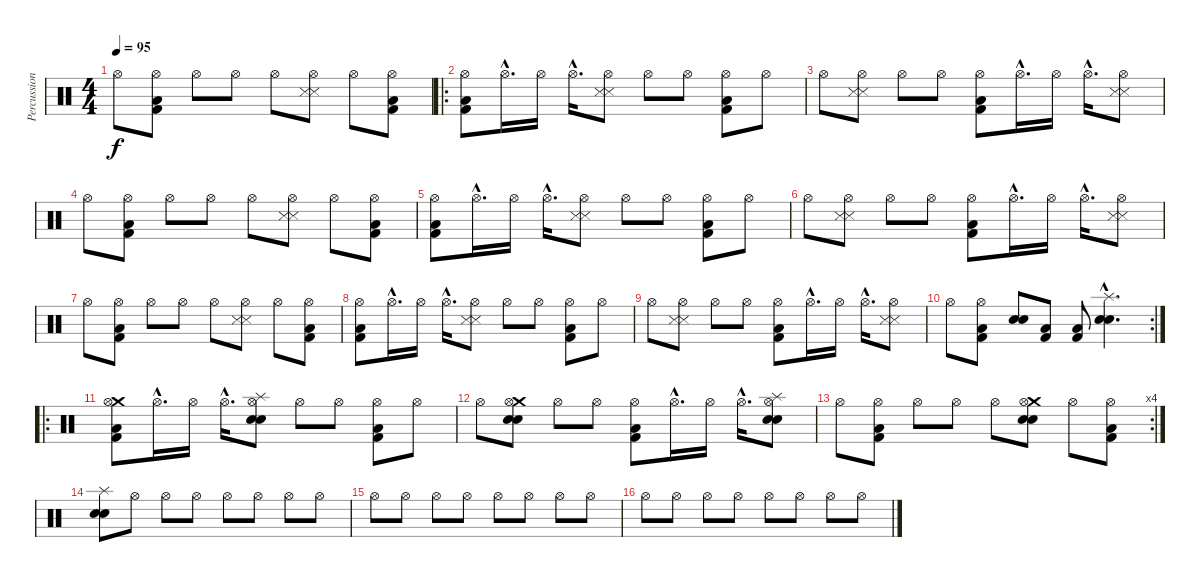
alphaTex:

\track ("Percussions" "Percussion") {instrument percussion}
\staff {score}
\articulation defaults
\ts (4 4)
\tempo 95
\clef neutral
\ks c "Hi-Hat (open)".8{dy f}
("Hi-Hat (open)" "Kick (hit) 2" "Low Floor Tom (hit)").8 "Hi-Hat (open)".8 "Hi-Hat (open)".8 "Hi-Hat (open)".8 ("Hi-Hat (open)" "Snare (side stick) 3" "Snare (side stick) 3").8 "Hi-Hat (open)".8 ("Hi-Hat (open)" "Kick (hit) 2" "Low Floor Tom (hit)").8 |
\ro
("Hi-Hat (open)" "Kick (hit) 2" "Low Floor Tom (hit)").8 "Hi-Hat (open)"{hac}.16{d} "Hi-Hat (open)".16 "Hi-Hat (open)"{hac}.16{d} ("Hi-Hat (open)" "Snare (side stick) 3" "Snare (side stick) 3").8 "Hi-Hat (open)".8 "Hi-Hat (open)".8 ("Hi-Hat (open)" "Kick (hit) 2" "Low Floor Tom (hit)").8 "Hi-Hat (open)".8 |
"Hi-Hat (open)".8 ("Hi-Hat (open)" "Snare (side stick) 3" "Snare (side stick) 3").8 "Hi-Hat (open)".8 "Hi-Hat (open)".8 ("Hi-Hat (open)" "Kick (hit) 2" "Low Floor Tom (hit)").8 "Hi-Hat (open)"{hac}.16{d} "Hi-Hat (open)".16 "Hi-Hat (open)"{hac}.16{d} ("Hi-Hat (open)" "Snare (side stick) 3" "Snare (side stick) 3").8 |
"Hi-Hat (open)".8 ("Hi-Hat (open)" "Kick (hit) 2" "Low Floor Tom (hit)").8 "Hi-Hat (open)".8 "Hi-Hat (open)".8 "Hi-Hat (open)".8 ("Hi-Hat (open)" "Snare (side stick) 3" "Snare (side stick) 3").8 "Hi-Hat (open)".8 ("Hi-Hat (open)" "Kick (hit) 2" "Low Floor Tom (hit)").8 |
("Hi-Hat (open)" "Kick (hit) 2" "Low Floor Tom (hit)").8 "Hi-Hat (open)"{hac}.16{d} "Hi-Hat (open)".16 "Hi-Hat (open)"{hac}.16{d} ("Hi-Hat (open)" "Snare (side stick) 3" "Snare (side stick) 3").8 "Hi-Hat (open)".8 "Hi-Hat (open)".8 ("Hi-Hat (open)" "Kick (hit) 2" "Low Floor Tom (hit)").8 "Hi-Hat (open)".8 |
"Hi-Hat (open)".8 ("Hi-Hat (open)" "Snare (side stick) 3" "Snare (side stick) 3").8 "Hi-Hat (open)".8 "Hi-Hat (open)".8 ("Hi-Hat (open)" "Kick (hit) 2" "Low Floor Tom (hit)").8 "Hi-Hat (open)"{hac}.16{d} "Hi-Hat (open)".16 "Hi-Hat (open)"{hac}.16{d} ("Hi-Hat (open)" "Snare (side stick) 3" "Snare (side stick) 3").8 |
"Hi-Hat (open)".8 ("Hi-Hat (open)" "Kick (hit) 2" "Low Floor Tom (hit)").8 "Hi-Hat (open)".8 "Hi-Hat (open)".8 "Hi-Hat (open)".8 ("Hi-Hat (open)" "Snare (side stick) 3" "Snare (side stick) 3").8 "Hi-Hat (open)".8 ("Hi-Hat (open)" "Kick (hit) 2" "Low Floor Tom (hit)").8 |
("Hi-Hat (open)" "Kick (hit) 2" "Low Floor Tom (hit)").8 "Hi-Hat (open)"{hac}.16{d} "Hi-Hat (open)".16 "Hi-Hat (open)"{hac}.16{d} ("Hi-Hat (open)" "Snare (side stick) 3" "Snare (side stick) 3").8 "Hi-Hat (open)".8 "Hi-Hat (open)".8 ("Hi-Hat (open)" "Kick (hit) 2" "Low Floor Tom (hit)").8 "Hi-Hat (open)".8 |
"Hi-Hat (open)".8 ("Hi-Hat (open)" "Snare (side stick) 3" "Snare (side stick) 3").8 "Hi-Hat (open)".8 "Hi-Hat (open)".8 ("Hi-Hat (open)" "Kick (hit) 2" "Low Floor Tom (hit)").8 "Hi-Hat (open)"{hac}.16{d} "Hi-Hat (open)".16 "Hi-Hat (open)"{hac}.16{d} ("Hi-Hat (open)" "Snare (side stick) 3" "Snare (side stick) 3").8 |
\rc 2 "Hi-Hat (open)".8
("Hi-Hat (open)" "Kick (hit) 2" "Low Floor Tom (hit)").8 ("Snare (hit) 2" "Electric Snare (hit)").8 ("Kick (hit) 2" "Low Floor Tom (hit)").8 ("Kick (hit) 2" "Low Floor Tom (hit)").8 ("Splash (hit)"{hac} "Snare (hit) 2"{hac} "Electric Snare (hit)"{hac}).4{d} |
\ro
("Crash medium (hit)" "Hi-Hat (open)" "Kick (hit) 2" "Low Floor Tom (hit)").8 "Hi-Hat (open)"{hac}.16{d} "Hi-Hat (open)".16 "Hi-Hat (open)"{hac}.16{d} ("Splash (hit)" "Hi-Hat (open)" "Electric Snare (hit)" "Snare (hit) 2").8 "Hi-Hat (open)".8 "Hi-Hat (open)".8 ("Hi-Hat (open)" "Kick (hit) 2" "Low Floor Tom (hit)").8 "Hi-Hat (open)".8 |
"Hi-Hat (open)".8 ("Crash medium (hit)" "Hi-Hat (open)" "Electric Snare (hit)" "Snare (hit) 2").8 "Hi-Hat (open)".8 "Hi-Hat (open)".8 ("Hi-Hat (open)" "Kick (hit) 2" "Low Floor Tom (hit)").8 "Hi-Hat (open)"{hac}.16{d} "Hi-Hat (open)".16 "Hi-Hat (open)"{hac}.16{d} ("Splash (hit)" "Hi-Hat (open)" "Electric Snare (hit)" "Snare (hit) 2").8 |
\rc 4 "Hi-Hat (open)".8
("Hi-Hat (open)" "Kick (hit) 2" "Low Floor Tom (hit)").8 "Hi-Hat (open)".8 "Hi-Hat (open)".8 "Hi-Hat (open)".8 ("Crash medium (hit)" "Hi-Hat (open)" "Electric Snare (hit)" "Snare (hit) 2").8 "Hi-Hat (open)".8 ("Hi-Hat (open)" "Kick (hit) 2" "Low Floor Tom (hit)").8 |
("Splash (hit)" "Snare (hit) 2" "Electric Snare (hit)").8 "Hi-Hat (open)".8 "Hi-Hat (open)".8 "Hi-Hat (open)".8 "Hi-Hat (open)".8 "Hi-Hat (open)".8 "Hi-Hat (open)".8 "Hi-Hat (open)".8 |
"Hi-Hat (open)".8 "Hi-Hat (open)".8 "Hi-Hat (open)".8 "Hi-Hat (open)".8 "Hi-Hat (open)".8 "Hi-Hat (open)".8 "Hi-Hat (open)".8 "Hi-Hat (open)".8 |
"Hi-Hat (open)".8 "Hi-Hat (open)".8 "Hi-Hat (open)".8 "Hi-Hat (open)".8 "Hi-Hat (open)".8 "Hi-Hat (open)".8 "Hi-Hat (open)".8 "Hi-Hat (open)".8
